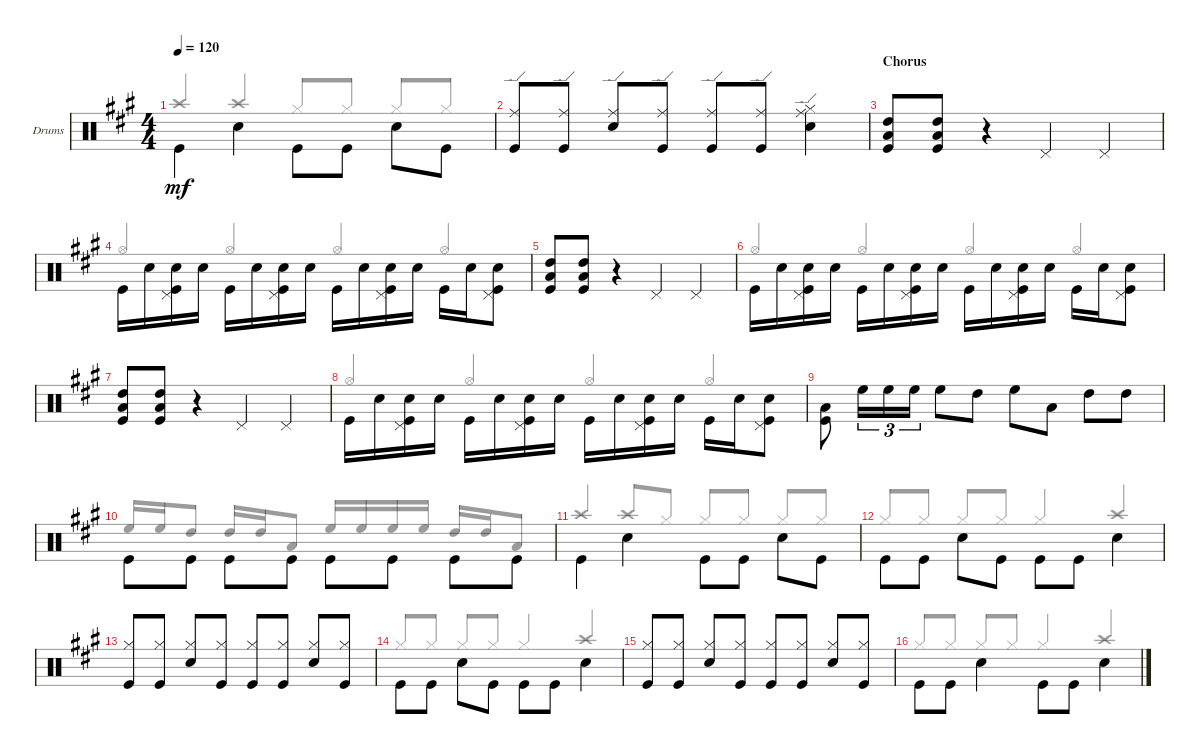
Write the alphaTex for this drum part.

\defaultSystemsLayout 4
\bracketExtendMode groupsimilarinstruments
\firstSystemTrackNameOrientation horizontal
\otherSystemsTrackNameOrientation horizontal
\track ("PETER CRISS" "Drums") {mute instrument percussion}
\staff {score}
\articulation defaults
\voice
\ts (4 4)
\tempo 120
\clef neutral
\ks a "Kick (hit)".4{dy mf beam invert} "Snare (hit) 2".4{beam invert} "Kick (hit)".8{beam invert} "Kick (hit)".8 "Snare (hit) 2".8{beam invert} "Kick (hit)".8
|
("Kick (hit)" "Ride (edge)").8{beam invert} ("Kick (hit)" "Ride (edge)").8 ("Snare (hit) 2" "Ride (edge)").8{beam invert} ("Kick (hit)" "Ride (edge)").8 ("Kick (hit)" "Ride (edge)").8{beam invert} ("Kick (hit)" "Ride (edge)").8 ("Snare (hit) 2" "Ride (edge)" "Hi-Hat (closed)").4 |
\section ("" "Chorus")
("High Tom (hit)" "Kick (hit)" "Low Tom (hit)").8 ("Kick (hit)" "Low Tom (hit)" "High Tom (hit)").8 r.4 "Pedal Hi-Hat (hit)".4 "Pedal Hi-Hat (hit)".4 |
"Kick (hit)".16{beam invert} "Snare (hit) 2".16 ("Snare (hit) 2" "Kick (hit)" "Pedal Hi-Hat (hit)").16 "Snare (hit) 2".16 "Kick (hit)".16{beam invert} "Snare (hit) 2".16 ("Snare (hit) 2" "Kick (hit)" "Pedal Hi-Hat (hit)").16 "Snare (hit) 2".16 "Kick (hit)".16{beam invert} "Snare (hit) 2".16 ("Snare (hit) 2" "Kick (hit)" "Pedal Hi-Hat (hit)").16 "Snare (hit) 2".16 "Kick (hit)".16{beam invert} "Snare (hit) 2".16 ("Snare (hit) 2" "Kick (hit)" "Pedal Hi-Hat (hit)").8 |
("High Tom (hit)" "Kick (hit)" "Low Tom (hit)").8 ("Kick (hit)" "Low Tom (hit)" "High Tom (hit)").8 r.4 "Pedal Hi-Hat (hit)".4 "Pedal Hi-Hat (hit)".4 |
"Kick (hit)".16{beam invert} "Snare (hit) 2".16 ("Snare (hit) 2" "Kick (hit)" "Pedal Hi-Hat (hit)").16 "Snare (hit) 2".16 "Kick (hit)".16{beam invert} "Snare (hit) 2".16 ("Snare (hit) 2" "Kick (hit)" "Pedal Hi-Hat (hit)").16 "Snare (hit) 2".16 "Kick (hit)".16{beam invert} "Snare (hit) 2".16 ("Snare (hit) 2" "Kick (hit)" "Pedal Hi-Hat (hit)").16 "Snare (hit) 2".16 "Kick (hit)".16{beam invert} "Snare (hit) 2".16 ("Snare (hit) 2" "Kick (hit)" "Pedal Hi-Hat (hit)").8 |
("High Tom (hit)" "Kick (hit)" "Low Tom (hit)").8 ("Kick (hit)" "Low Tom (hit)" "High Tom (hit)").8 r.4 "Pedal Hi-Hat (hit)".4 "Pedal Hi-Hat (hit)".4 |
"Kick (hit)".16{beam invert} "Snare (hit) 2".16 ("Snare (hit) 2" "Kick (hit)" "Pedal Hi-Hat (hit)").16 "Snare (hit) 2".16 "Kick (hit)".16{beam invert} "Snare (hit) 2".16 ("Snare (hit) 2" "Kick (hit)" "Pedal Hi-Hat (hit)").16 "Snare (hit) 2".16 "Kick (hit)".16{beam invert} "Snare (hit) 2".16 ("Snare (hit) 2" "Kick (hit)" "Pedal Hi-Hat (hit)").16 "Snare (hit) 2".16 "Kick (hit)".16{beam invert} "Snare (hit) 2".16 ("Snare (hit) 2" "Kick (hit)" "Pedal Hi-Hat (hit)").8 |
("Kick (hit)" "Low Tom (hit)").8{beam invert} "High Floor Tom (hit)".16{tu (3 2)} "High Floor Tom (hit)".16{tu (3 2)} "High Floor Tom (hit)".16{tu (3 2)} "High Floor Tom (hit)".8 "High Tom (hit)".8 "High Floor Tom (hit)".8 "Low Tom (hit)".8 "High Tom (hit)".8 "High Tom (hit)".8 |
"Kick (hit)".8{beam invert} "Kick (hit)".8 "Kick (hit)".8{beam invert} "Kick (hit)".8 "Kick (hit)".8{beam invert} "Kick (hit)".8 "Kick (hit)".8{beam invert} "Kick (hit)".8 |
"Kick (hit)".4{beam invert} "Snare (hit) 2".4{beam invert} "Kick (hit)".8{beam invert} "Kick (hit)".8 "Snare (hit) 2".8{beam invert} "Kick (hit)".8 |
"Kick (hit)".8{beam invert} "Kick (hit)".8 "Snare (hit) 2".8{beam invert} "Kick (hit)".8 "Kick (hit)".8{beam invert} "Kick (hit)".8 "Snare (hit) 2".4{beam invert} |
("Hi-Hat (closed)" "Kick (hit)").8{beam invert} ("Hi-Hat (closed)" "Kick (hit)").8 ("Hi-Hat (closed)" "Snare (hit) 2").8{beam invert} ("Hi-Hat (closed)" "Kick (hit)").8 ("Hi-Hat (closed)" "Kick (hit)").8{beam invert} ("Hi-Hat (closed)" "Kick (hit)").8 ("Hi-Hat (closed)" "Snare (hit) 2").8{beam invert} ("Hi-Hat (closed)" "Kick (hit)").8 |
"Kick (hit)".8{beam invert} "Kick (hit)".8 "Snare (hit) 2".8{beam invert} "Kick (hit)".8 "Kick (hit)".8{beam invert} "Kick (hit)".8 "Snare (hit) 2".4{beam invert} |
("Hi-Hat (closed)" "Kick (hit)").8{beam invert} ("Hi-Hat (closed)" "Kick (hit)").8 ("Hi-Hat (closed)" "Snare (hit) 2").8{beam invert} ("Hi-Hat (closed)" "Kick (hit)").8 ("Hi-Hat (closed)" "Kick (hit)").8{beam invert} ("Hi-Hat (closed)" "Kick (hit)").8 ("Hi-Hat (closed)" "Snare (hit) 2").8{beam invert} ("Hi-Hat (closed)" "Kick (hit)").8 |
"Kick (hit)".8{beam invert} "Kick (hit)".8 "Snare (hit) 2".4{beam invert} "Kick (hit)".8{beam invert} "Kick (hit)".8 "Snare (hit) 2".4{beam invert}
\voice
\clef neutral
\ottava regular
\simile none
\ks a "Crash high (hit)".4{dy mf beam invert} "Crash high (hit)".4{beam invert} "Hi-Hat (closed)".8{beam invert} "Hi-Hat (closed)".8 "Hi-Hat (closed)".8{beam invert} "Hi-Hat (closed)".8
|
|
|
"Hi-Hat (open)".4{beam invert} "Hi-Hat (open)".4{beam invert} "Hi-Hat (open)".4{beam invert} "Hi-Hat (open)".4{beam invert} |
|
"Hi-Hat (open)".4{beam invert} "Hi-Hat (open)".4{beam invert} "Hi-Hat (open)".4{beam invert} "Hi-Hat (open)".4{beam invert} |
|
"Hi-Hat (open)".4{beam invert} "Hi-Hat (open)".4{beam invert} "Hi-Hat (open)".4{beam invert} "Hi-Hat (open)".4{beam invert} |
|
"High Floor Tom (hit)".16{beam invert} "High Floor Tom (hit)".16 "High Tom (hit)".8 "High Tom (hit)".16{beam invert} "High Tom (hit)".16 "Low Tom (hit)".8 "High Floor Tom (hit)".16{beam invert} "High Floor Tom (hit)".16 "High Floor Tom (hit)".16 "High Floor Tom (hit)".16 "High Tom (hit)".16{beam invert} "High Tom (hit)".16 "Low Tom (hit)".8 |
"Crash high (hit)".4{beam invert} "Crash high (hit)".8{beam invert} "Hi-Hat (closed)".8 "Hi-Hat (closed)".8{beam invert} "Hi-Hat (closed)".8 "Hi-Hat (closed)".8{beam invert} "Hi-Hat (closed)".8 |
"Hi-Hat (closed)".8{beam invert} "Hi-Hat (closed)".8 "Hi-Hat (closed)".8{beam invert} "Hi-Hat (closed)".8 "Hi-Hat (closed)".4{beam invert} "Crash high (hit)".4{beam invert} |
|
"Hi-Hat (closed)".8{beam invert} "Hi-Hat (closed)".8 "Hi-Hat (closed)".8{beam invert} "Hi-Hat (closed)".8 "Hi-Hat (closed)".4{beam invert} "Crash high (hit)".4{beam invert} |
|
"Hi-Hat (closed)".8{beam invert} "Hi-Hat (closed)".8 "Hi-Hat (closed)".8{beam invert} "Hi-Hat (closed)".8 "Hi-Hat (closed)".4{beam invert} "Crash high (hit)".4{beam invert}
